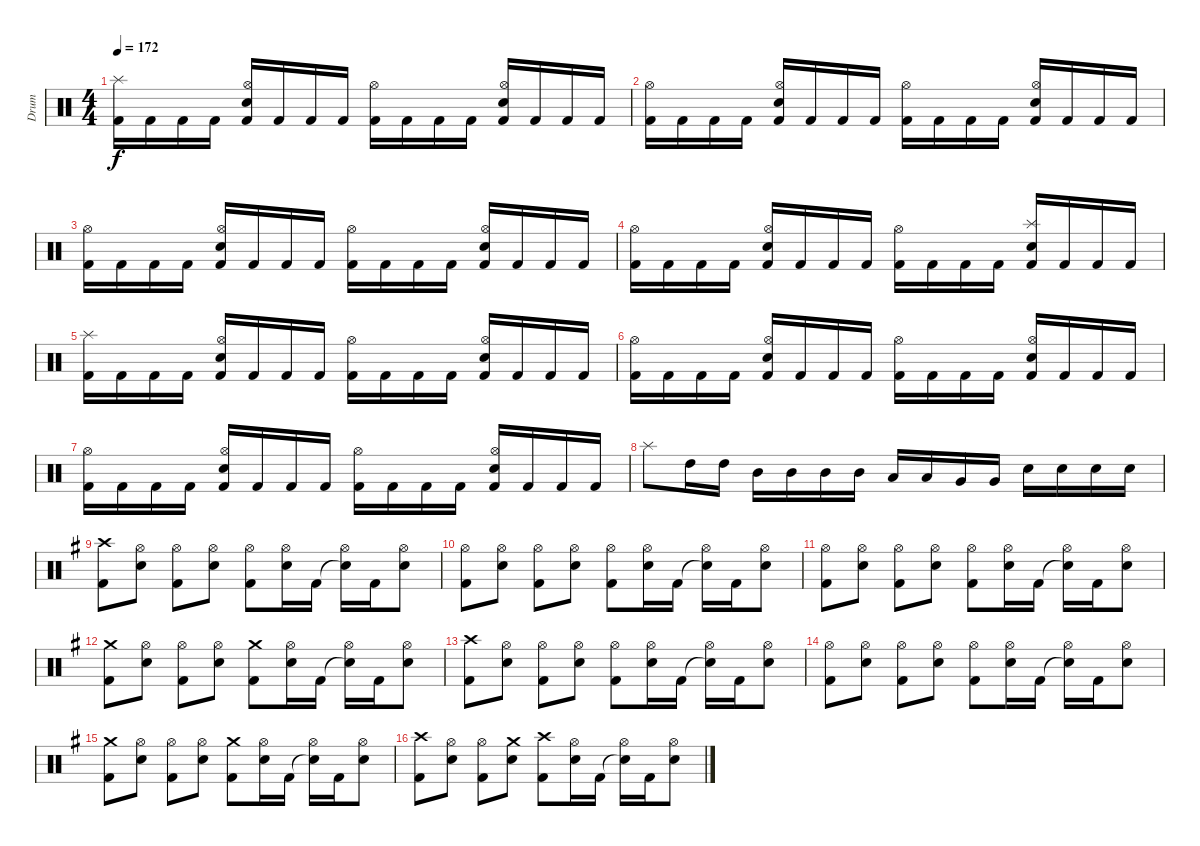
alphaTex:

\track ("Drum" "Drum") {instrument percussion}
\staff {score}
\articulation defaults
\ts (4 4)
\tempo 172
\clef neutral
\ks c
("Kick (hit) 2" "Splash (hit)").16{dy f} "Kick (hit) 2".16 "Kick (hit) 2".16 "Kick (hit) 2".16 ("Kick (hit) 2" "Hi-Hat (open)" "Electric Snare (hit)").16 "Kick (hit) 2".16 "Kick (hit) 2".16 "Kick (hit) 2".16 ("Kick (hit) 2" "Hi-Hat (open)").16 "Kick (hit) 2".16 "Kick (hit) 2".16 "Kick (hit) 2".16 ("Kick (hit) 2" "Hi-Hat (open)" "Electric Snare (hit)").16 "Kick (hit) 2".16 "Kick (hit) 2".16 "Kick (hit) 2".16 |
("Kick (hit) 2" "Hi-Hat (open)").16 "Kick (hit) 2".16 "Kick (hit) 2".16 "Kick (hit) 2".16 ("Kick (hit) 2" "Hi-Hat (open)" "Electric Snare (hit)").16 "Kick (hit) 2".16 "Kick (hit) 2".16 "Kick (hit) 2".16 ("Kick (hit) 2" "Hi-Hat (open)").16 "Kick (hit) 2".16 "Kick (hit) 2".16 "Kick (hit) 2".16 ("Kick (hit) 2" "Hi-Hat (open)" "Electric Snare (hit)").16 "Kick (hit) 2".16 "Kick (hit) 2".16 "Kick (hit) 2".16 |
("Kick (hit) 2" "Hi-Hat (open)").16 "Kick (hit) 2".16 "Kick (hit) 2".16 "Kick (hit) 2".16 ("Kick (hit) 2" "Hi-Hat (open)" "Electric Snare (hit)").16 "Kick (hit) 2".16 "Kick (hit) 2".16 "Kick (hit) 2".16 ("Kick (hit) 2" "Hi-Hat (open)").16 "Kick (hit) 2".16 "Kick (hit) 2".16 "Kick (hit) 2".16 ("Kick (hit) 2" "Hi-Hat (open)" "Electric Snare (hit)").16 "Kick (hit) 2".16 "Kick (hit) 2".16 "Kick (hit) 2".16 |
("Kick (hit) 2" "Hi-Hat (open)").16 "Kick (hit) 2".16 "Kick (hit) 2".16 "Kick (hit) 2".16 ("Kick (hit) 2" "Hi-Hat (open)" "Electric Snare (hit)").16 "Kick (hit) 2".16 "Kick (hit) 2".16 "Kick (hit) 2".16 ("Kick (hit) 2" "Hi-Hat (open)").16 "Kick (hit) 2".16 "Kick (hit) 2".16 "Kick (hit) 2".16 ("Kick (hit) 2" "Splash (hit)" "Electric Snare (hit)").16 "Kick (hit) 2".16 "Kick (hit) 2".16 "Kick (hit) 2".16 |
("Kick (hit) 2" "Splash (hit)").16 "Kick (hit) 2".16 "Kick (hit) 2".16 "Kick (hit) 2".16 ("Kick (hit) 2" "Hi-Hat (open)" "Electric Snare (hit)").16 "Kick (hit) 2".16 "Kick (hit) 2".16 "Kick (hit) 2".16 ("Kick (hit) 2" "Hi-Hat (open)").16 "Kick (hit) 2".16 "Kick (hit) 2".16 "Kick (hit) 2".16 ("Kick (hit) 2" "Hi-Hat (open)" "Electric Snare (hit)").16 "Kick (hit) 2".16 "Kick (hit) 2".16 "Kick (hit) 2".16 |
("Kick (hit) 2" "Hi-Hat (open)").16 "Kick (hit) 2".16 "Kick (hit) 2".16 "Kick (hit) 2".16 ("Kick (hit) 2" "Hi-Hat (open)" "Electric Snare (hit)").16 "Kick (hit) 2".16 "Kick (hit) 2".16 "Kick (hit) 2".16 ("Kick (hit) 2" "Hi-Hat (open)").16 "Kick (hit) 2".16 "Kick (hit) 2".16 "Kick (hit) 2".16 ("Kick (hit) 2" "Hi-Hat (open)" "Electric Snare (hit)").16 "Kick (hit) 2".16 "Kick (hit) 2".16 "Kick (hit) 2".16 |
("Kick (hit) 2" "Hi-Hat (open)").16 "Kick (hit) 2".16 "Kick (hit) 2".16 "Kick (hit) 2".16 ("Kick (hit) 2" "Hi-Hat (open)" "Electric Snare (hit)").16 "Kick (hit) 2".16 "Kick (hit) 2".16 "Kick (hit) 2".16 ("Kick (hit) 2" "Hi-Hat (open)").16 "Kick (hit) 2".16 "Kick (hit) 2".16 "Kick (hit) 2".16 ("Kick (hit) 2" "Hi-Hat (open)" "Electric Snare (hit)").16 "Kick (hit) 2".16 "Kick (hit) 2".16 "Kick (hit) 2".16 |
"Splash (hit)".8 "High Tom (hit)".16 "High Tom (hit)".16 "Mid Tom (hit)".16 "Mid Tom (hit)".16 "Mid Tom (hit)".16 "Mid Tom (hit)".16 "Low Tom (hit)".16 "Low Tom (hit)".16 "Very Low Tom (hit)".16 "Very Low Tom (hit)".16 "Electric Snare (hit)".16 "Electric Snare (hit)".16 "Electric Snare (hit)".16 "Electric Snare (hit)".16 |
\ks eminor
("Kick (hit) 2" "Crash high (hit)").8 ("Electric Snare (hit)" "Hi-Hat (open)").8 ("Kick (hit) 2" "Hi-Hat (open)").8 ("Electric Snare (hit)" "Hi-Hat (open)").8 ("Kick (hit) 2" "Hi-Hat (open)").8 ("Electric Snare (hit)" "Hi-Hat (open)").16 "Kick (hit) 2".16 ("Snare (hit)"{t} "Hi-Hat (open)").16 "Kick (hit) 2".16 ("Electric Snare (hit)" "Hi-Hat (open)").8 |
("Kick (hit) 2" "Hi-Hat (open)").8 ("Electric Snare (hit)" "Hi-Hat (open)").8 ("Kick (hit) 2" "Hi-Hat (open)").8 ("Electric Snare (hit)" "Hi-Hat (open)").8 ("Kick (hit) 2" "Hi-Hat (open)").8 ("Electric Snare (hit)" "Hi-Hat (open)").16 "Kick (hit) 2".16 ("Snare (hit)"{t} "Hi-Hat (open)").16 "Kick (hit) 2".16 ("Electric Snare (hit)" "Hi-Hat (open)").8 |
("Kick (hit) 2" "Hi-Hat (open)").8 ("Electric Snare (hit)" "Hi-Hat (open)").8 ("Kick (hit) 2" "Hi-Hat (open)").8 ("Electric Snare (hit)" "Hi-Hat (open)").8 ("Kick (hit) 2" "Hi-Hat (open)").8 ("Electric Snare (hit)" "Hi-Hat (open)").16 "Kick (hit) 2".16 ("Snare (hit)"{t} "Hi-Hat (open)").16 "Kick (hit) 2".16 ("Electric Snare (hit)" "Hi-Hat (open)").8 |
("Kick (hit) 2" "Crash medium (hit)").8 ("Electric Snare (hit)" "Hi-Hat (open)").8 ("Kick (hit) 2" "Hi-Hat (open)").8 ("Electric Snare (hit)" "Hi-Hat (open)").8 ("Kick (hit) 2" "Crash medium (hit)").8 ("Electric Snare (hit)" "Hi-Hat (open)").16 "Kick (hit) 2".16 ("Snare (hit)"{t} "Hi-Hat (open)").16 "Kick (hit) 2".16 ("Electric Snare (hit)" "Hi-Hat (open)").8 |
("Kick (hit) 2" "Crash high (hit)").8 ("Electric Snare (hit)" "Hi-Hat (open)").8 ("Kick (hit) 2" "Hi-Hat (open)").8 ("Electric Snare (hit)" "Hi-Hat (open)").8 ("Kick (hit) 2" "Hi-Hat (open)").8 ("Electric Snare (hit)" "Hi-Hat (open)").16 "Kick (hit) 2".16 ("Snare (hit)"{t} "Hi-Hat (open)").16 "Kick (hit) 2".16 ("Electric Snare (hit)" "Hi-Hat (open)").8 |
("Kick (hit) 2" "Hi-Hat (open)").8 ("Electric Snare (hit)" "Hi-Hat (open)").8 ("Kick (hit) 2" "Hi-Hat (open)").8 ("Electric Snare (hit)" "Hi-Hat (open)").8 ("Kick (hit) 2" "Hi-Hat (open)").8 ("Electric Snare (hit)" "Hi-Hat (open)").16 "Kick (hit) 2".16 ("Snare (hit)"{t} "Hi-Hat (open)").16 "Kick (hit) 2".16 ("Electric Snare (hit)" "Hi-Hat (open)").8 |
("Kick (hit) 2" "Crash medium (hit)").8 ("Electric Snare (hit)" "Hi-Hat (open)").8 ("Kick (hit) 2" "Hi-Hat (open)").8 ("Electric Snare (hit)" "Hi-Hat (open)").8 ("Kick (hit) 2" "Crash medium (hit)").8 ("Electric Snare (hit)" "Hi-Hat (open)").16 "Kick (hit) 2".16 ("Snare (hit)"{t} "Hi-Hat (open)").16 "Kick (hit) 2".16 ("Electric Snare (hit)" "Hi-Hat (open)").8 |
("Kick (hit) 2" "Crash high (hit)").8 ("Electric Snare (hit)" "Hi-Hat (open)").8 ("Kick (hit) 2" "Hi-Hat (open)").8 ("Electric Snare (hit)" "Crash medium (hit)").8 ("Kick (hit) 2" "Crash high (hit)").8 ("Electric Snare (hit)" "Hi-Hat (open)").16 "Kick (hit) 2".16 ("Snare (hit)"{t} "Hi-Hat (open)").16 "Kick (hit) 2".16 ("Electric Snare (hit)" "Hi-Hat (open)").8
